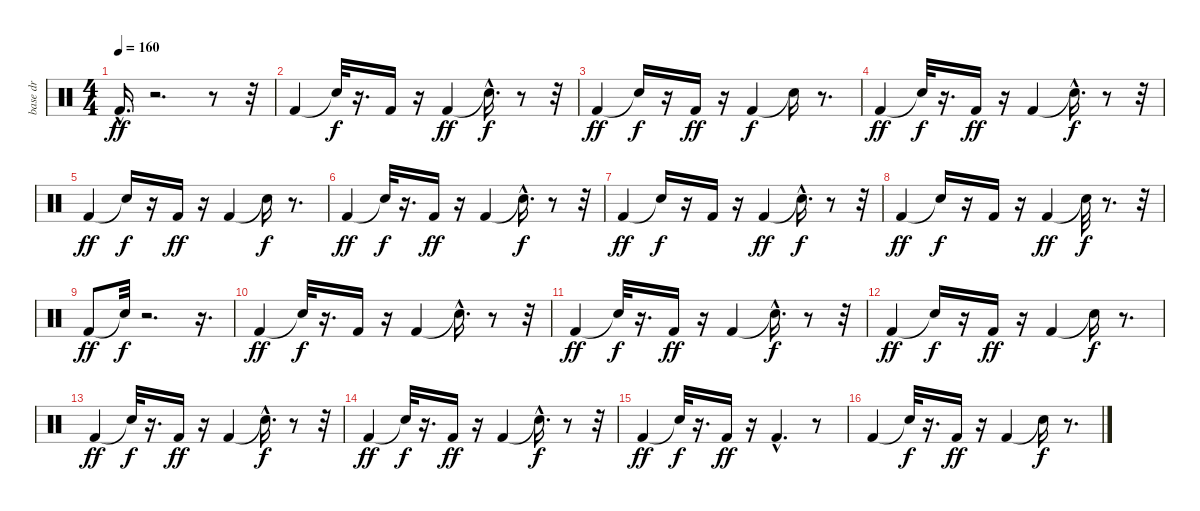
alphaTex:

\track ("base dr" "base dr") {instrument percussion}
\staff {score}
\articulation defaults
\ts (4 4)
\tempo 160
\clef neutral
\ks c "Kick (hit) 2"{hac}.16{d dy ff}
r.2{d} r.8 r.32 |
"Kick (hit) 2".4 "Snare (hit)"{t}.32{dy f} r.16{d} "Kick (hit) 2".16 r.16 "Kick (hit) 2".4{dy ff} "Snare (hit)"{hac t}.16{d dy f} r.8 r.32 |
"Kick (hit) 2".4{dy ff} "Snare (hit)"{t}.16{dy f} r.16 "Kick (hit) 2".16{dy ff} r.16 "Kick (hit) 2".4{dy f} "Snare (hit)"{t}.16 r.8{d} |
"Kick (hit) 2".4{dy ff} "Snare (hit)"{t}.32{dy f} r.16{d} "Kick (hit) 2".16{dy ff} r.16 "Kick (hit) 2".4 "Snare (hit)"{hac t}.16{d dy f} r.8 r.32 |
"Kick (hit) 2".4{dy ff} "Snare (hit)"{t}.16{dy f} r.16 "Kick (hit) 2".16{dy ff} r.16 "Kick (hit) 2".4 "Snare (hit)"{t}.16{dy f} r.8{d} |
"Kick (hit) 2".4{dy ff} "Snare (hit)"{t}.32{dy f} r.16{d} "Kick (hit) 2".16{dy ff} r.16 "Kick (hit) 2".4 "Snare (hit)"{hac t}.16{d dy f} r.8 r.32 |
"Kick (hit) 2".4{dy ff} "Snare (hit)"{t}.16{dy f} r.16 "Kick (hit) 2".16 r.16 "Kick (hit) 2".4{dy ff} "Snare (hit)"{hac t}.16{d dy f} r.8 r.32 |
"Kick (hit) 2".4{dy ff} "Snare (hit)"{t}.16{dy f} r.16 "Kick (hit) 2".16 r.16 "Kick (hit) 2".4{dy ff} "Snare (hit)"{t}.32{dy f} r.8{d} r.32 |
"Kick (hit) 2".8{dy ff} "Snare (hit)"{t}.32{dy f} r.2{d} r.16{d} |
"Kick (hit) 2".4{dy ff} "Snare (hit)"{t}.32{dy f} r.16{d} "Kick (hit) 2".16 r.16 "Kick (hit) 2".4 "Snare (hit)"{hac t}.16{d} r.8 r.32 |
"Kick (hit) 2".4{dy ff} "Snare (hit)"{t}.32{dy f} r.16{d} "Kick (hit) 2".16{dy ff} r.16 "Kick (hit) 2".4 "Snare (hit)"{hac t}.16{d dy f} r.8 r.32 |
"Kick (hit) 2".4{dy ff} "Snare (hit)"{t}.16{dy f} r.16 "Kick (hit) 2".16{dy ff} r.16 "Kick (hit) 2".4 "Snare (hit)"{t}.16{dy f} r.8{d} |
"Kick (hit) 2".4{dy ff} "Snare (hit)"{t}.32{dy f} r.16{d} "Kick (hit) 2".16{dy ff} r.16 "Kick (hit) 2".4 "Snare (hit)"{hac t}.16{d dy f} r.8 r.32 |
"Kick (hit) 2".4{dy ff} "Snare (hit)"{t}.32{dy f} r.16{d} "Kick (hit) 2".16{dy ff} r.16 "Kick (hit) 2".4 "Snare (hit)"{hac t}.16{d dy f} r.8 r.32 |
"Kick (hit) 2".4{dy ff} "Snare (hit)"{t}.32{dy f} r.16{d} "Kick (hit) 2".16{dy ff} r.16 "Kick (hit) 2"{hac}.4{d} r.8 |
"Kick (hit) 2".4 "Snare (hit)"{t}.32{dy f} r.16{d} "Kick (hit) 2".16{dy ff} r.16 "Kick (hit) 2".4 "Snare (hit)"{t}.16{dy f} r.8{d}
